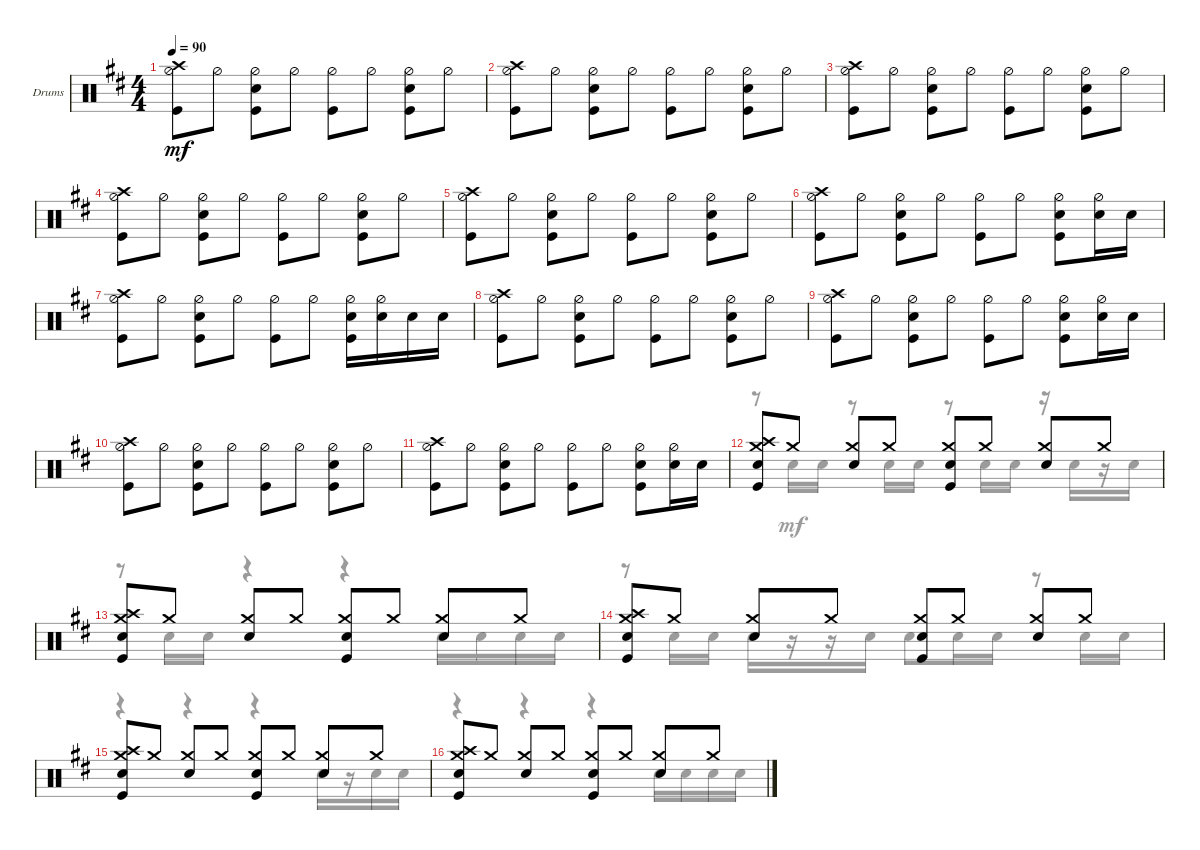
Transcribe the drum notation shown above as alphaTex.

\defaultSystemsLayout 4
\bracketExtendMode groupsimilarinstruments
\firstSystemTrackNameOrientation horizontal
\otherSystemsTrackNameOrientation horizontal
\track ("Drumkit" "Drums") {instrument percussion}
\staff {score}
\articulation defaults
\voice
\ts (4 4)
\tempo 90
\clef neutral
\ks bminor
("Crash high (hit)" "Hi-Hat (half)" "Kick (hit)").8{dy mf} "Hi-Hat (half)".8 ("Hi-Hat (half)" "Snare (hit) 2" "Kick (hit)").8 "Hi-Hat (half)".8 ("Hi-Hat (half)" "Kick (hit)").8 "Hi-Hat (half)".8 ("Hi-Hat (half)" "Snare (hit) 2" "Kick (hit)").8 "Hi-Hat (half)".8 |
("Crash high (hit)" "Hi-Hat (half)" "Kick (hit)").8 "Hi-Hat (half)".8 ("Hi-Hat (half)" "Snare (hit) 2" "Kick (hit)").8 "Hi-Hat (half)".8 ("Hi-Hat (half)" "Kick (hit)").8 "Hi-Hat (half)".8 ("Hi-Hat (half)" "Snare (hit) 2" "Kick (hit)").8 "Hi-Hat (half)".8 |
("Crash high (hit)" "Hi-Hat (half)" "Kick (hit)").8 "Hi-Hat (half)".8 ("Hi-Hat (half)" "Snare (hit) 2" "Kick (hit)").8 "Hi-Hat (half)".8 ("Hi-Hat (half)" "Kick (hit)").8 "Hi-Hat (half)".8 ("Hi-Hat (half)" "Snare (hit) 2" "Kick (hit)").8 "Hi-Hat (half)".8 |
("Crash high (hit)" "Hi-Hat (half)" "Kick (hit)").8 "Hi-Hat (half)".8 ("Hi-Hat (half)" "Snare (hit) 2" "Kick (hit)").8 "Hi-Hat (half)".8 ("Hi-Hat (half)" "Kick (hit)").8 "Hi-Hat (half)".8 ("Hi-Hat (half)" "Snare (hit) 2" "Kick (hit)").8 "Hi-Hat (half)".8 |
("Crash high (hit)" "Hi-Hat (half)" "Kick (hit)").8 "Hi-Hat (half)".8 ("Hi-Hat (half)" "Snare (hit) 2" "Kick (hit)").8 "Hi-Hat (half)".8 ("Hi-Hat (half)" "Kick (hit)").8 "Hi-Hat (half)".8 ("Hi-Hat (half)" "Snare (hit) 2" "Kick (hit)").8 "Hi-Hat (half)".8 |
("Crash high (hit)" "Hi-Hat (half)" "Kick (hit)").8 "Hi-Hat (half)".8 ("Hi-Hat (half)" "Snare (hit) 2" "Kick (hit)").8 "Hi-Hat (half)".8 ("Hi-Hat (half)" "Kick (hit)").8 "Hi-Hat (half)".8 ("Hi-Hat (half)" "Snare (hit) 2" "Kick (hit)").8 ("Hi-Hat (half)" "Snare (hit) 2").16 "Snare (hit) 2".16 |
("Crash high (hit)" "Hi-Hat (half)" "Kick (hit)").8 "Hi-Hat (half)".8 ("Hi-Hat (half)" "Snare (hit) 2" "Kick (hit)").8 "Hi-Hat (half)".8 ("Hi-Hat (half)" "Kick (hit)").8 "Hi-Hat (half)".8 ("Hi-Hat (half)" "Snare (hit) 2" "Kick (hit)").16 ("Hi-Hat (half)" "Snare (hit) 2").16 "Snare (hit) 2".16 "Snare (hit) 2".16 |
("Crash high (hit)" "Hi-Hat (half)" "Kick (hit)").8 "Hi-Hat (half)".8 ("Hi-Hat (half)" "Snare (hit) 2" "Kick (hit)").8 "Hi-Hat (half)".8 ("Hi-Hat (half)" "Kick (hit)").8 "Hi-Hat (half)".8 ("Hi-Hat (half)" "Snare (hit) 2" "Kick (hit)").8 "Hi-Hat (half)".8 |
("Crash high (hit)" "Hi-Hat (half)" "Kick (hit)").8 "Hi-Hat (half)".8 ("Hi-Hat (half)" "Snare (hit) 2" "Kick (hit)").8 "Hi-Hat (half)".8 ("Hi-Hat (half)" "Kick (hit)").8 "Hi-Hat (half)".8 ("Hi-Hat (half)" "Snare (hit) 2" "Kick (hit)").8 ("Hi-Hat (half)" "Snare (hit) 2").16 "Snare (hit) 2".16 |
("Crash high (hit)" "Hi-Hat (half)" "Kick (hit)").8 "Hi-Hat (half)".8 ("Hi-Hat (half)" "Snare (hit) 2" "Kick (hit)").8 "Hi-Hat (half)".8 ("Hi-Hat (half)" "Kick (hit)").8 "Hi-Hat (half)".8 ("Hi-Hat (half)" "Snare (hit) 2" "Kick (hit)").8 "Hi-Hat (half)".8 |
("Crash high (hit)" "Hi-Hat (half)" "Kick (hit)").8 "Hi-Hat (half)".8 ("Hi-Hat (half)" "Snare (hit) 2" "Kick (hit)").8 "Hi-Hat (half)".8 ("Hi-Hat (half)" "Kick (hit)").8 "Hi-Hat (half)".8 ("Hi-Hat (half)" "Snare (hit) 2" "Kick (hit)").8 ("Hi-Hat (half)" "Snare (hit) 2").16 "Snare (hit) 2".16 |
("Kick (hit)" "Snare (hit) 2" "Crash medium (hit)" "Crash high (hit)").8 "Crash medium (hit)".8 ("Snare (hit) 2" "Crash medium (hit)").8 "Crash medium (hit)".8 ("Kick (hit)" "Snare (hit) 2" "Crash medium (hit)").8 "Crash medium (hit)".8 ("Snare (hit) 2" "Crash medium (hit)").8 "Crash medium (hit)".8 |
("Kick (hit)" "Snare (hit) 2" "Crash medium (hit)" "Crash high (hit)").8 "Crash medium (hit)".8 ("Snare (hit) 2" "Crash medium (hit)").8 "Crash medium (hit)".8 ("Kick (hit)" "Snare (hit) 2" "Crash medium (hit)").8 "Crash medium (hit)".8 ("Snare (hit) 2" "Crash medium (hit)").8 "Crash medium (hit)".8 |
("Kick (hit)" "Snare (hit) 2" "Crash medium (hit)" "Crash high (hit)").8 "Crash medium (hit)".8 ("Snare (hit) 2" "Crash medium (hit)").8 "Crash medium (hit)".8 ("Kick (hit)" "Snare (hit) 2" "Crash medium (hit)").8 "Crash medium (hit)".8 ("Snare (hit) 2" "Crash medium (hit)").8 "Crash medium (hit)".8 |
("Kick (hit)" "Snare (hit) 2" "Crash medium (hit)" "Crash high (hit)").8 "Crash medium (hit)".8 ("Snare (hit) 2" "Crash medium (hit)").8 "Crash medium (hit)".8 ("Kick (hit)" "Snare (hit) 2" "Crash medium (hit)").8 "Crash medium (hit)".8 ("Snare (hit) 2" "Crash medium (hit)").8 "Crash medium (hit)".8 |
("Kick (hit)" "Snare (hit) 2" "Crash medium (hit)" "Crash high (hit)").8 "Crash medium (hit)".8 ("Snare (hit) 2" "Crash medium (hit)").8 "Crash medium (hit)".8 ("Kick (hit)" "Snare (hit) 2" "Crash medium (hit)").8 "Crash medium (hit)".8 ("Snare (hit) 2" "Crash medium (hit)").8 "Crash medium (hit)".8
\voice
\clef neutral
\ottava regular
\simile none
\ks bminor
|
|
|
|
|
|
|
|
|
|
|
r.8 "Snare (hit) 2".16 "Snare (hit) 2".16 r.8 "Snare (hit) 2".16 "Snare (hit) 2".16 r.8 "Snare (hit) 2".16 "Snare (hit) 2".16 r.16 "Snare (hit) 2".16 r.16 "Snare (hit) 2".16 |
r.8 "Snare (hit) 2".16 "Snare (hit) 2".16 r.4 r.4 "Snare (hit) 2".16 "Snare (hit) 2".16 "Snare (hit) 2".16 "Snare (hit) 2".16 |
r.8 "Snare (hit) 2".16 "Snare (hit) 2".16 "Snare (hit) 2".16 r.16 r.16 "Snare (hit) 2".16 "Snare (hit) 2".8 "Snare (hit) 2".16 "Snare (hit) 2".16 r.8 "Snare (hit) 2".16 "Snare (hit) 2".16 |
r.4 r.4 r.4 "Snare (hit) 2".16 r.16 "Snare (hit) 2".16 "Snare (hit) 2".16 |
r.4 r.4 r.4 "Snare (hit) 2".16 "Snare (hit) 2".16 "Snare (hit) 2".16 "Snare (hit) 2".16
